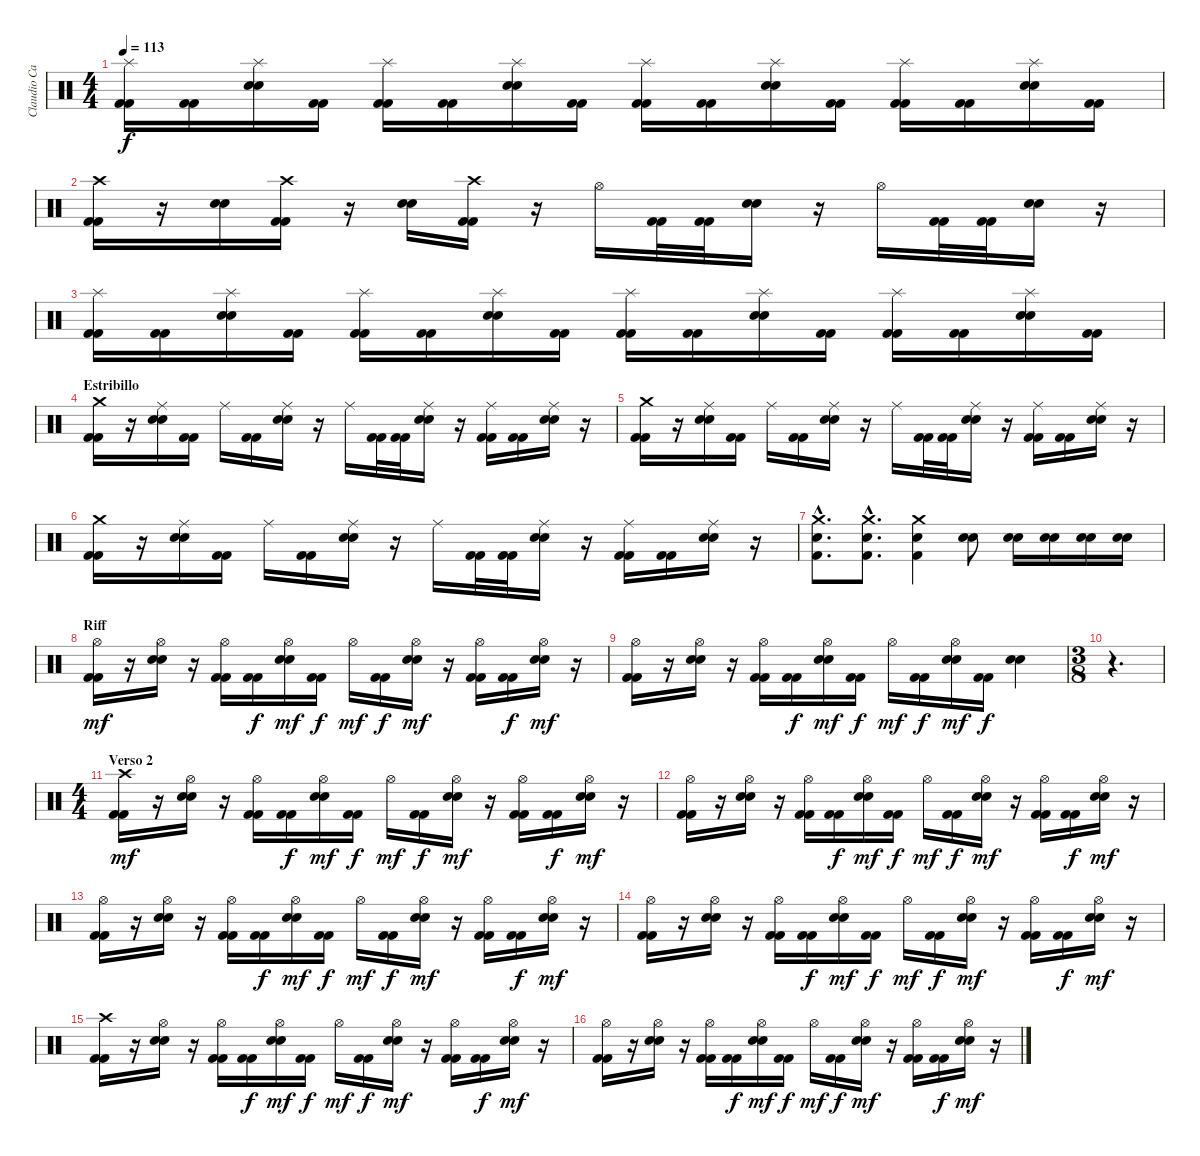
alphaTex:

\track ("Claudio Cardaci (bateria)" "Claudio Ca") {instrument percussion}
\staff {score}
\articulation defaults
\ts (4 4)
\tempo 113
\clef neutral
\ks c
("Splash (hit)" "Kick (hit) 2" "Kick (hit) 2").16{dy f} ("Kick (hit) 2" "Kick (hit) 2").16 ("Splash (hit)" "Snare (hit) 2" "Snare (hit) 2").16 ("Kick (hit) 2" "Kick (hit) 2").16 ("Splash (hit)" "Kick (hit) 2" "Kick (hit) 2").16 ("Kick (hit) 2" "Kick (hit) 2").16 ("Splash (hit)" "Snare (hit) 2" "Snare (hit) 2").16 ("Kick (hit) 2" "Kick (hit) 2").16 ("Splash (hit)" "Kick (hit) 2" "Kick (hit) 2").16 ("Kick (hit) 2" "Kick (hit) 2").16 ("Splash (hit)" "Snare (hit) 2" "Snare (hit) 2").16 ("Kick (hit) 2" "Kick (hit) 2").16 ("Splash (hit)" "Kick (hit) 2" "Kick (hit) 2").16 ("Kick (hit) 2" "Kick (hit) 2").16 ("Splash (hit)" "Snare (hit) 2" "Snare (hit) 2").16 ("Kick (hit) 2" "Kick (hit) 2").16 |
("Crash high (hit)" "Kick (hit) 2" "Kick (hit) 2").16 r.16 ("Snare (hit) 2" "Snare (hit) 2").16 ("Crash high (hit)" "Kick (hit) 2" "Kick (hit) 2").16 r.16 ("Snare (hit) 2" "Snare (hit) 2").16 ("Crash high (hit)" "Kick (hit) 2" "Kick (hit) 2").16 r.16 "Hi-Hat (open)".16 ("Kick (hit) 2" "Kick (hit) 2").32 ("Kick (hit) 2" "Kick (hit) 2").32 ("Snare (hit) 2" "Snare (hit) 2").16 r.16 "Hi-Hat (open)".16 ("Kick (hit) 2" "Kick (hit) 2").32 ("Kick (hit) 2" "Kick (hit) 2").32 ("Snare (hit) 2" "Snare (hit) 2").16 r.16 |
("Splash (hit)" "Kick (hit) 2" "Kick (hit) 2").16 ("Kick (hit) 2" "Kick (hit) 2").16 ("Splash (hit)" "Snare (hit) 2" "Snare (hit) 2").16 ("Kick (hit) 2" "Kick (hit) 2").16 ("Splash (hit)" "Kick (hit) 2" "Kick (hit) 2").16 ("Kick (hit) 2" "Kick (hit) 2").16 ("Splash (hit)" "Snare (hit) 2" "Snare (hit) 2").16 ("Kick (hit) 2" "Kick (hit) 2").16 ("Splash (hit)" "Kick (hit) 2" "Kick (hit) 2").16 ("Kick (hit) 2" "Kick (hit) 2").16 ("Splash (hit)" "Snare (hit) 2" "Snare (hit) 2").16 ("Kick (hit) 2" "Kick (hit) 2").16 ("Splash (hit)" "Kick (hit) 2" "Kick (hit) 2").16 ("Kick (hit) 2" "Kick (hit) 2").16 ("Splash (hit)" "Snare (hit) 2" "Snare (hit) 2").16 ("Kick (hit) 2" "Kick (hit) 2").16 |
\section ("" "Estribillo")
("Crash medium (hit)" "Kick (hit) 2" "Kick (hit) 2").16 r.16 ("Ride (middle)" "Snare (hit) 2" "Snare (hit) 2").16 ("Kick (hit) 2" "Kick (hit) 2").16 "Ride (middle)".16 ("Kick (hit) 2" "Kick (hit) 2").16 ("Ride (middle)" "Snare (hit) 2" "Snare (hit) 2").16 r.16 "Ride (middle)".16 ("Kick (hit) 2" "Kick (hit) 2").32 ("Kick (hit) 2" "Kick (hit) 2").32 ("Ride (middle)" "Snare (hit) 2" "Snare (hit) 2").16 r.16 ("Ride (middle)" "Kick (hit) 2" "Kick (hit) 2").16 ("Kick (hit) 2" "Kick (hit) 2").16 ("Ride (middle)" "Snare (hit) 2" "Snare (hit) 2").16 r.16 |
("Crash medium (hit)" "Kick (hit) 2" "Kick (hit) 2").16 r.16 ("Ride (middle)" "Snare (hit) 2" "Snare (hit) 2").16 ("Kick (hit) 2" "Kick (hit) 2").16 "Ride (middle)".16 ("Kick (hit) 2" "Kick (hit) 2").16 ("Ride (middle)" "Snare (hit) 2" "Snare (hit) 2").16 r.16 "Ride (middle)".16 ("Kick (hit) 2" "Kick (hit) 2").32 ("Kick (hit) 2" "Kick (hit) 2").32 ("Ride (middle)" "Snare (hit) 2" "Snare (hit) 2").16 r.16 ("Ride (middle)" "Kick (hit) 2" "Kick (hit) 2").16 ("Kick (hit) 2" "Kick (hit) 2").16 ("Ride (middle)" "Snare (hit) 2" "Snare (hit) 2").16 r.16 |
("Crash medium (hit)" "Kick (hit) 2" "Kick (hit) 2").16 r.16 ("Ride (middle)" "Snare (hit) 2" "Snare (hit) 2").16 ("Kick (hit) 2" "Kick (hit) 2").16 "Ride (middle)".16 ("Kick (hit) 2" "Kick (hit) 2").16 ("Ride (middle)" "Snare (hit) 2" "Snare (hit) 2").16 r.16 "Ride (middle)".16 ("Kick (hit) 2" "Kick (hit) 2").32 ("Kick (hit) 2" "Kick (hit) 2").32 ("Ride (middle)" "Snare (hit) 2" "Snare (hit) 2").16 r.16 ("Ride (middle)" "Kick (hit) 2" "Kick (hit) 2").16 ("Kick (hit) 2" "Kick (hit) 2").16 ("Ride (middle)" "Snare (hit) 2" "Snare (hit) 2").16 r.16 |
("Crash medium (hit)"{hac} "Snare (hit) 2"{hac} "Kick (hit) 2"{hac}).8{d} ("Crash medium (hit)"{hac} "Snare (hit) 2"{hac} "Kick (hit) 2"{hac}).8{d} ("Crash medium (hit)" "Snare (hit) 2" "Kick (hit) 2").4 ("Electric Snare (hit)" "Electric Snare (hit)").8 ("Snare (hit) 2" "Snare (hit) 2").16 ("Snare (hit) 2" "Snare (hit) 2").16 ("Snare (hit) 2" "Snare (hit) 2").16 ("Snare (hit) 2" "Snare (hit) 2").16 |
\section ("" "Riff")
("Hi-Hat (open)" "Kick (hit) 2" "Kick (hit) 2").16{dy mf} r.16 ("Hi-Hat (open)" "Snare (hit) 2" "Snare (hit) 2").16 r.16 ("Hi-Hat (open)" "Kick (hit) 2" "Kick (hit) 2").16 ("Kick (hit) 2" "Kick (hit) 2").16{dy f} ("Hi-Hat (open)" "Snare (hit) 2" "Snare (hit) 2").16{dy mf} ("Kick (hit) 2" "Kick (hit) 2").16{dy f} "Hi-Hat (open)".16{dy mf} ("Kick (hit) 2" "Kick (hit) 2").16{dy f} ("Hi-Hat (open)" "Snare (hit) 2" "Snare (hit) 2").16{dy mf} r.16 ("Hi-Hat (open)" "Kick (hit) 2" "Kick (hit) 2").16 ("Kick (hit) 2" "Kick (hit) 2").16{dy f} ("Hi-Hat (open)" "Snare (hit) 2" "Snare (hit) 2").16{dy mf} r.16 |
("Hi-Hat (open)" "Kick (hit) 2" "Kick (hit) 2").16 r.16 ("Hi-Hat (open)" "Snare (hit) 2" "Snare (hit) 2").16 r.16 ("Hi-Hat (open)" "Kick (hit) 2" "Kick (hit) 2").16 ("Kick (hit) 2" "Kick (hit) 2").16{dy f} ("Hi-Hat (open)" "Snare (hit) 2" "Snare (hit) 2").16{dy mf} ("Kick (hit) 2" "Kick (hit) 2").16{dy f} "Hi-Hat (open)".16{dy mf} ("Kick (hit) 2" "Kick (hit) 2").16{dy f} ("Hi-Hat (open)" "Snare (hit) 2" "Snare (hit) 2").16{dy mf} ("Kick (hit) 2" "Kick (hit) 2").16{dy f} ("Snare (hit) 2" "Snare (hit) 2").4 |
\ts (3 8)
r.4{d} |
\ts (4 4)
\section ("" "Verso 2")
("Crash high (hit)" "Kick (hit) 2" "Kick (hit) 2").16{dy mf} r.16 ("Hi-Hat (open)" "Snare (hit) 2" "Snare (hit) 2").16 r.16 ("Hi-Hat (open)" "Kick (hit) 2" "Kick (hit) 2").16 ("Kick (hit) 2" "Kick (hit) 2").16{dy f} ("Hi-Hat (open)" "Snare (hit) 2" "Snare (hit) 2").16{dy mf} ("Kick (hit) 2" "Kick (hit) 2").16{dy f} "Hi-Hat (open)".16{dy mf} ("Kick (hit) 2" "Kick (hit) 2").16{dy f} ("Hi-Hat (open)" "Snare (hit) 2" "Snare (hit) 2").16{dy mf} r.16 ("Hi-Hat (open)" "Kick (hit) 2" "Kick (hit) 2").16 ("Kick (hit) 2" "Kick (hit) 2").16{dy f} ("Hi-Hat (open)" "Snare (hit) 2" "Snare (hit) 2").16{dy mf} r.16 |
("Hi-Hat (open)" "Kick (hit) 2" "Kick (hit) 2").16 r.16 ("Hi-Hat (open)" "Snare (hit) 2" "Snare (hit) 2").16 r.16 ("Hi-Hat (open)" "Kick (hit) 2" "Kick (hit) 2").16 ("Kick (hit) 2" "Kick (hit) 2").16{dy f} ("Hi-Hat (open)" "Snare (hit) 2" "Snare (hit) 2").16{dy mf} ("Kick (hit) 2" "Kick (hit) 2").16{dy f} "Hi-Hat (open)".16{dy mf} ("Kick (hit) 2" "Kick (hit) 2").16{dy f} ("Hi-Hat (open)" "Snare (hit) 2" "Snare (hit) 2").16{dy mf} r.16 ("Hi-Hat (open)" "Kick (hit) 2" "Kick (hit) 2").16 ("Kick (hit) 2" "Kick (hit) 2").16{dy f} ("Hi-Hat (open)" "Snare (hit) 2" "Snare (hit) 2").16{dy mf} r.16 |
("Hi-Hat (open)" "Kick (hit) 2" "Kick (hit) 2").16 r.16 ("Hi-Hat (open)" "Snare (hit) 2" "Snare (hit) 2").16 r.16 ("Hi-Hat (open)" "Kick (hit) 2" "Kick (hit) 2").16 ("Kick (hit) 2" "Kick (hit) 2").16{dy f} ("Hi-Hat (open)" "Snare (hit) 2" "Snare (hit) 2").16{dy mf} ("Kick (hit) 2" "Kick (hit) 2").16{dy f} "Hi-Hat (open)".16{dy mf} ("Kick (hit) 2" "Kick (hit) 2").16{dy f} ("Hi-Hat (open)" "Snare (hit) 2" "Snare (hit) 2").16{dy mf} r.16 ("Hi-Hat (open)" "Kick (hit) 2" "Kick (hit) 2").16 ("Kick (hit) 2" "Kick (hit) 2").16{dy f} ("Hi-Hat (open)" "Snare (hit) 2" "Snare (hit) 2").16{dy mf} r.16 |
("Hi-Hat (open)" "Kick (hit) 2" "Kick (hit) 2").16 r.16 ("Hi-Hat (open)" "Snare (hit) 2" "Snare (hit) 2").16 r.16 ("Hi-Hat (open)" "Kick (hit) 2" "Kick (hit) 2").16 ("Kick (hit) 2" "Kick (hit) 2").16{dy f} ("Hi-Hat (open)" "Snare (hit) 2" "Snare (hit) 2").16{dy mf} ("Kick (hit) 2" "Kick (hit) 2").16{dy f} "Hi-Hat (open)".16{dy mf} ("Kick (hit) 2" "Kick (hit) 2").16{dy f} ("Hi-Hat (open)" "Snare (hit) 2" "Snare (hit) 2").16{dy mf} r.16 ("Hi-Hat (open)" "Kick (hit) 2" "Kick (hit) 2").16 ("Kick (hit) 2" "Kick (hit) 2").16{dy f} ("Hi-Hat (open)" "Snare (hit) 2" "Snare (hit) 2").16{dy mf} r.16 |
("Crash high (hit)" "Kick (hit) 2" "Kick (hit) 2").16 r.16 ("Hi-Hat (open)" "Snare (hit) 2" "Snare (hit) 2").16 r.16 ("Hi-Hat (open)" "Kick (hit) 2" "Kick (hit) 2").16 ("Kick (hit) 2" "Kick (hit) 2").16{dy f} ("Hi-Hat (open)" "Snare (hit) 2" "Snare (hit) 2").16{dy mf} ("Kick (hit) 2" "Kick (hit) 2").16{dy f} "Hi-Hat (open)".16{dy mf} ("Kick (hit) 2" "Kick (hit) 2").16{dy f} ("Hi-Hat (open)" "Snare (hit) 2" "Snare (hit) 2").16{dy mf} r.16 ("Hi-Hat (open)" "Kick (hit) 2" "Kick (hit) 2").16 ("Kick (hit) 2" "Kick (hit) 2").16{dy f} ("Hi-Hat (open)" "Snare (hit) 2" "Snare (hit) 2").16{dy mf} r.16 |
("Hi-Hat (open)" "Kick (hit) 2" "Kick (hit) 2").16 r.16 ("Hi-Hat (open)" "Snare (hit) 2" "Snare (hit) 2").16 r.16 ("Hi-Hat (open)" "Kick (hit) 2" "Kick (hit) 2").16 ("Kick (hit) 2" "Kick (hit) 2").16{dy f} ("Hi-Hat (open)" "Snare (hit) 2" "Snare (hit) 2").16{dy mf} ("Kick (hit) 2" "Kick (hit) 2").16{dy f} "Hi-Hat (open)".16{dy mf} ("Kick (hit) 2" "Kick (hit) 2").16{dy f} ("Hi-Hat (open)" "Snare (hit) 2" "Snare (hit) 2").16{dy mf} r.16 ("Hi-Hat (open)" "Kick (hit) 2" "Kick (hit) 2").16 ("Kick (hit) 2" "Kick (hit) 2").16{dy f} ("Hi-Hat (open)" "Snare (hit) 2" "Snare (hit) 2").16{dy mf} r.16
